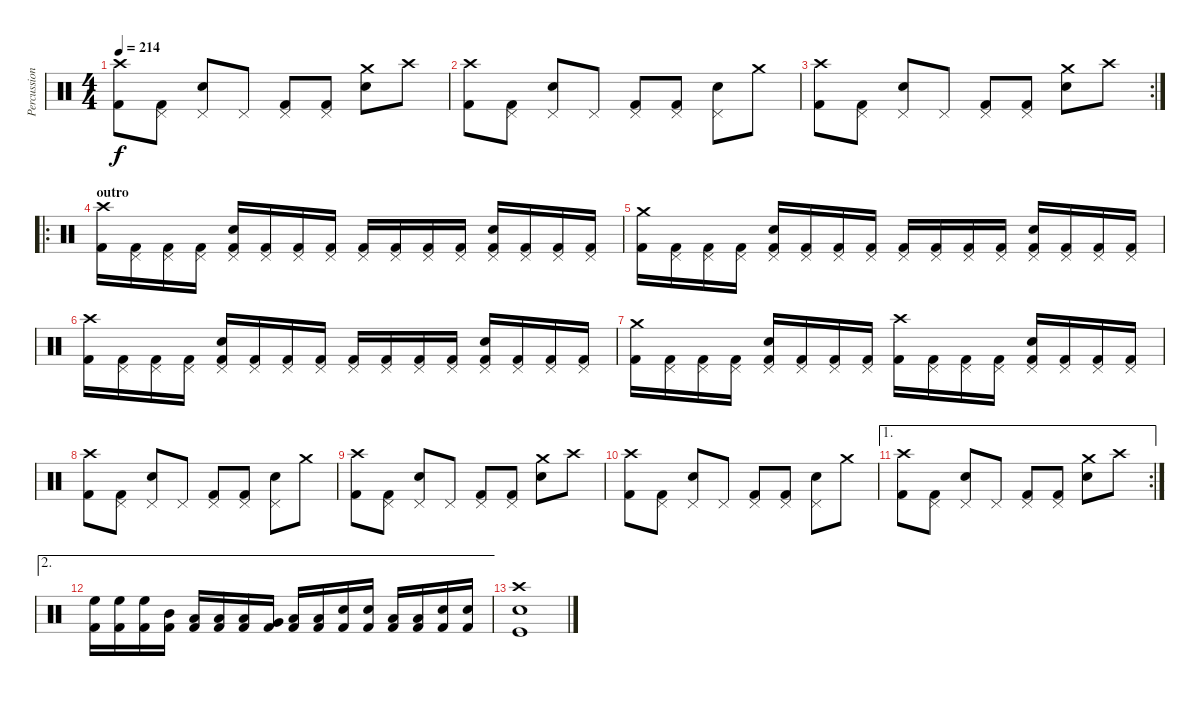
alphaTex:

\track ("Percussion" "Percussion") {instrument percussion}
\staff {score}
\articulation defaults
\ts (4 4)
\tempo 214
\clef neutral
\ks c
("Crash high (hit)" "Kick (hit) 2").8{dy f} ("Pedal Hi-Hat (hit)" "Kick (hit) 2").8 ("Pedal Hi-Hat (hit)" "Snare (hit) 2").8 "Pedal Hi-Hat (hit)".8 ("Pedal Hi-Hat (hit)" "Kick (hit) 2").8 ("Pedal Hi-Hat (hit)" "Kick (hit) 2").8 ("Crash medium (hit)" "Snare (hit) 2").8 "Crash high (hit)".8 |
("Crash high (hit)" "Kick (hit) 2").8 ("Pedal Hi-Hat (hit)" "Kick (hit) 2").8 ("Pedal Hi-Hat (hit)" "Snare (hit) 2").8 "Pedal Hi-Hat (hit)".8 ("Pedal Hi-Hat (hit)" "Kick (hit) 2").8 ("Pedal Hi-Hat (hit)" "Kick (hit) 2").8 ("Pedal Hi-Hat (hit)" "Snare (hit) 2").8 "Crash medium (hit)".8 |
\rc 2
("Crash high (hit)" "Kick (hit) 2").8 ("Pedal Hi-Hat (hit)" "Kick (hit) 2").8 ("Pedal Hi-Hat (hit)" "Snare (hit) 2").8 "Pedal Hi-Hat (hit)".8 ("Pedal Hi-Hat (hit)" "Kick (hit) 2").8 ("Pedal Hi-Hat (hit)" "Kick (hit) 2").8 ("Crash medium (hit)" "Snare (hit) 2").8 "Crash high (hit)".8 |
\ro
\section ("" "outro")
("Crash high (hit)" "Kick (hit) 2").16 ("Pedal Hi-Hat (hit)" "Kick (hit) 2").16 ("Pedal Hi-Hat (hit)" "Kick (hit) 2").16 ("Pedal Hi-Hat (hit)" "Kick (hit) 2").16 ("Pedal Hi-Hat (hit)" "Snare (hit) 2" "Kick (hit) 2").16 ("Pedal Hi-Hat (hit)" "Kick (hit) 2").16 ("Pedal Hi-Hat (hit)" "Kick (hit) 2").16 ("Pedal Hi-Hat (hit)" "Kick (hit) 2").16 ("Pedal Hi-Hat (hit)" "Kick (hit) 2").16 ("Pedal Hi-Hat (hit)" "Kick (hit) 2").16 ("Pedal Hi-Hat (hit)" "Kick (hit) 2").16 ("Pedal Hi-Hat (hit)" "Kick (hit) 2").16 ("Pedal Hi-Hat (hit)" "Snare (hit) 2" "Kick (hit) 2").16 ("Pedal Hi-Hat (hit)" "Kick (hit) 2").16 ("Pedal Hi-Hat (hit)" "Kick (hit) 2").16 ("Pedal Hi-Hat (hit)" "Kick (hit) 2").16 |
("Crash medium (hit)" "Kick (hit) 2").16 ("Pedal Hi-Hat (hit)" "Kick (hit) 2").16 ("Pedal Hi-Hat (hit)" "Kick (hit) 2").16 ("Pedal Hi-Hat (hit)" "Kick (hit) 2").16 ("Pedal Hi-Hat (hit)" "Snare (hit) 2" "Kick (hit) 2").16 ("Pedal Hi-Hat (hit)" "Kick (hit) 2").16 ("Pedal Hi-Hat (hit)" "Kick (hit) 2").16 ("Pedal Hi-Hat (hit)" "Kick (hit) 2").16 ("Pedal Hi-Hat (hit)" "Kick (hit) 2").16 ("Pedal Hi-Hat (hit)" "Kick (hit) 2").16 ("Pedal Hi-Hat (hit)" "Kick (hit) 2").16 ("Pedal Hi-Hat (hit)" "Kick (hit) 2").16 ("Pedal Hi-Hat (hit)" "Snare (hit) 2" "Kick (hit) 2").16 ("Pedal Hi-Hat (hit)" "Kick (hit) 2").16 ("Pedal Hi-Hat (hit)" "Kick (hit) 2").16 ("Pedal Hi-Hat (hit)" "Kick (hit) 2").16 |
("Crash high (hit)" "Kick (hit) 2").16 ("Pedal Hi-Hat (hit)" "Kick (hit) 2").16 ("Pedal Hi-Hat (hit)" "Kick (hit) 2").16 ("Pedal Hi-Hat (hit)" "Kick (hit) 2").16 ("Pedal Hi-Hat (hit)" "Snare (hit) 2" "Kick (hit) 2").16 ("Pedal Hi-Hat (hit)" "Kick (hit) 2").16 ("Pedal Hi-Hat (hit)" "Kick (hit) 2").16 ("Pedal Hi-Hat (hit)" "Kick (hit) 2").16 ("Pedal Hi-Hat (hit)" "Kick (hit) 2").16 ("Pedal Hi-Hat (hit)" "Kick (hit) 2").16 ("Pedal Hi-Hat (hit)" "Kick (hit) 2").16 ("Pedal Hi-Hat (hit)" "Kick (hit) 2").16 ("Pedal Hi-Hat (hit)" "Snare (hit) 2" "Kick (hit) 2").16 ("Pedal Hi-Hat (hit)" "Kick (hit) 2").16 ("Pedal Hi-Hat (hit)" "Kick (hit) 2").16 ("Pedal Hi-Hat (hit)" "Kick (hit) 2").16 |
("Crash medium (hit)" "Kick (hit) 2").16 ("Pedal Hi-Hat (hit)" "Kick (hit) 2").16 ("Pedal Hi-Hat (hit)" "Kick (hit) 2").16 ("Pedal Hi-Hat (hit)" "Kick (hit) 2").16 ("Pedal Hi-Hat (hit)" "Snare (hit) 2" "Kick (hit) 2").16 ("Pedal Hi-Hat (hit)" "Kick (hit) 2").16 ("Pedal Hi-Hat (hit)" "Kick (hit) 2").16 ("Pedal Hi-Hat (hit)" "Kick (hit) 2").16 ("Crash high (hit)" "Kick (hit) 2").16 ("Pedal Hi-Hat (hit)" "Kick (hit) 2").16 ("Pedal Hi-Hat (hit)" "Kick (hit) 2").16 ("Pedal Hi-Hat (hit)" "Kick (hit) 2").16 ("Pedal Hi-Hat (hit)" "Snare (hit) 2" "Kick (hit) 2").16 ("Pedal Hi-Hat (hit)" "Kick (hit) 2").16 ("Pedal Hi-Hat (hit)" "Kick (hit) 2").16 ("Pedal Hi-Hat (hit)" "Kick (hit) 2").16 |
("Crash high (hit)" "Kick (hit) 2").8 ("Pedal Hi-Hat (hit)" "Kick (hit) 2").8 ("Pedal Hi-Hat (hit)" "Snare (hit) 2").8 "Pedal Hi-Hat (hit)".8 ("Pedal Hi-Hat (hit)" "Kick (hit) 2").8 ("Pedal Hi-Hat (hit)" "Kick (hit) 2").8 ("Pedal Hi-Hat (hit)" "Snare (hit) 2").8 "Crash medium (hit)".8 |
("Crash high (hit)" "Kick (hit) 2").8 ("Pedal Hi-Hat (hit)" "Kick (hit) 2").8 ("Pedal Hi-Hat (hit)" "Snare (hit) 2").8 "Pedal Hi-Hat (hit)".8 ("Pedal Hi-Hat (hit)" "Kick (hit) 2").8 ("Pedal Hi-Hat (hit)" "Kick (hit) 2").8 ("Crash medium (hit)" "Snare (hit) 2").8 "Crash high (hit)".8 |
("Crash high (hit)" "Kick (hit) 2").8 ("Pedal Hi-Hat (hit)" "Kick (hit) 2").8 ("Pedal Hi-Hat (hit)" "Snare (hit) 2").8 "Pedal Hi-Hat (hit)".8 ("Pedal Hi-Hat (hit)" "Kick (hit) 2").8 ("Pedal Hi-Hat (hit)" "Kick (hit) 2").8 ("Pedal Hi-Hat (hit)" "Snare (hit) 2").8 "Crash medium (hit)".8 |
\ae 1
\rc 2
("Crash high (hit)" "Kick (hit) 2").8 ("Pedal Hi-Hat (hit)" "Kick (hit) 2").8 ("Pedal Hi-Hat (hit)" "Snare (hit) 2").8 "Pedal Hi-Hat (hit)".8 ("Pedal Hi-Hat (hit)" "Kick (hit) 2").8 ("Pedal Hi-Hat (hit)" "Kick (hit) 2").8 ("Crash medium (hit)" "Snare (hit) 2").8 "Crash high (hit)".8 |
\ae 2
("High Floor Tom (hit)" "Kick (hit) 2").16 ("High Floor Tom (hit)" "Kick (hit) 2").16 ("High Floor Tom (hit)" "Kick (hit) 2").16 ("Mid Tom (hit)" "Kick (hit) 2").16 ("Low Tom (hit)" "Kick (hit) 2").16 ("Low Tom (hit)" "Kick (hit) 2").16 ("Low Tom (hit)" "Kick (hit) 2").16 ("Very Low Tom (hit)" "Kick (hit) 2").16 ("Low Floor Tom (hit)" "Kick (hit) 2").16 ("Low Floor Tom (hit)" "Kick (hit) 2").16 ("Electric Snare (hit)" "Kick (hit) 2").16 ("Electric Snare (hit)" "Kick (hit) 2").16 ("Low Floor Tom (hit)" "Kick (hit) 2").16 ("Low Floor Tom (hit)" "Kick (hit) 2").16 ("Snare (hit) 2" "Kick (hit) 2").16 ("Snare (hit) 2" "Kick (hit) 2").16 |
("Crash high (hit)" "Snare (hit) 2" "Kick (hit)").1
